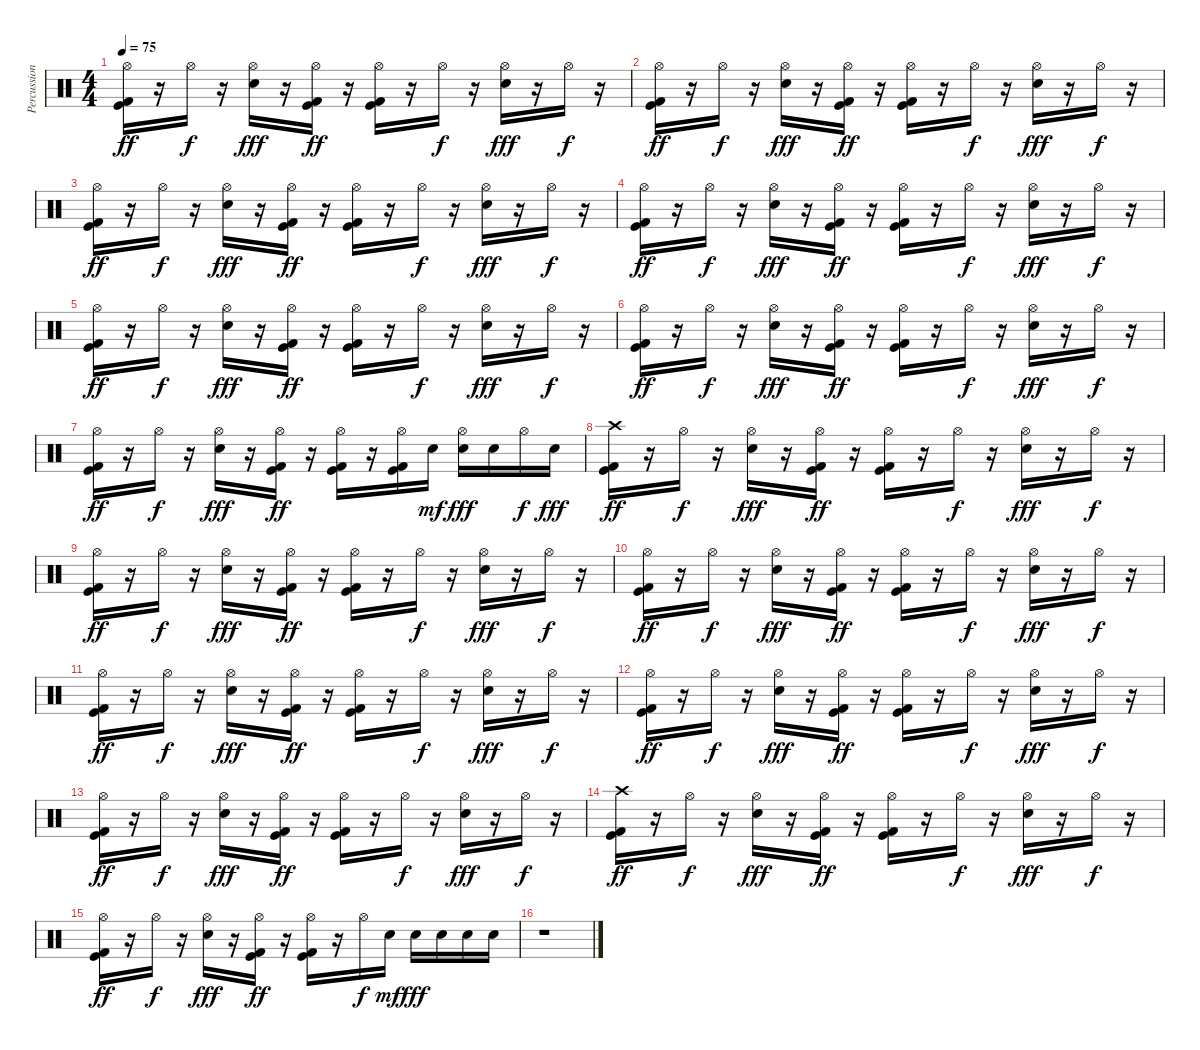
\track ("Percussion" "Percussion") {instrument percussion}
\staff {score}
\articulation defaults
\ts (4 4)
\tempo 75
\clef neutral
\ks c
("Kick (hit)" "Kick (hit) 2" "Hi-Hat (open)").16{dy ff} r.16 "Hi-Hat (open)".16{dy f} r.16 ("Electric Snare (hit)" "Hi-Hat (open)").16{dy fff} r.16 ("Kick (hit)" "Kick (hit) 2" "Hi-Hat (open)").16{dy ff} r.16 ("Kick (hit)" "Kick (hit) 2" "Hi-Hat (open)").16 r.16 "Hi-Hat (open)".16{dy f} r.16 ("Electric Snare (hit)" "Hi-Hat (open)").16{dy fff} r.16 "Hi-Hat (open)".16{dy f} r.16 |
("Kick (hit)" "Kick (hit) 2" "Hi-Hat (open)").16{dy ff} r.16 "Hi-Hat (open)".16{dy f} r.16 ("Electric Snare (hit)" "Hi-Hat (open)").16{dy fff} r.16 ("Kick (hit)" "Kick (hit) 2" "Hi-Hat (open)").16{dy ff} r.16 ("Kick (hit)" "Kick (hit) 2" "Hi-Hat (open)").16 r.16 "Hi-Hat (open)".16{dy f} r.16 ("Electric Snare (hit)" "Hi-Hat (open)").16{dy fff} r.16 "Hi-Hat (open)".16{dy f} r.16 |
("Kick (hit)" "Kick (hit) 2" "Hi-Hat (open)").16{dy ff} r.16 "Hi-Hat (open)".16{dy f} r.16 ("Electric Snare (hit)" "Hi-Hat (open)").16{dy fff} r.16 ("Kick (hit)" "Kick (hit) 2" "Hi-Hat (open)").16{dy ff} r.16 ("Kick (hit)" "Kick (hit) 2" "Hi-Hat (open)").16 r.16 "Hi-Hat (open)".16{dy f} r.16 ("Electric Snare (hit)" "Hi-Hat (open)").16{dy fff} r.16 "Hi-Hat (open)".16{dy f} r.16 |
("Kick (hit)" "Kick (hit) 2" "Hi-Hat (open)").16{dy ff} r.16 "Hi-Hat (open)".16{dy f} r.16 ("Electric Snare (hit)" "Hi-Hat (open)").16{dy fff} r.16 ("Kick (hit)" "Kick (hit) 2" "Hi-Hat (open)").16{dy ff} r.16 ("Kick (hit)" "Kick (hit) 2" "Hi-Hat (open)").16 r.16 "Hi-Hat (open)".16{dy f} r.16 ("Electric Snare (hit)" "Hi-Hat (open)").16{dy fff} r.16 "Hi-Hat (open)".16{dy f} r.16 |
("Kick (hit)" "Kick (hit) 2" "Hi-Hat (open)").16{dy ff} r.16 "Hi-Hat (open)".16{dy f} r.16 ("Electric Snare (hit)" "Hi-Hat (open)").16{dy fff} r.16 ("Kick (hit)" "Kick (hit) 2" "Hi-Hat (open)").16{dy ff} r.16 ("Kick (hit)" "Kick (hit) 2" "Hi-Hat (open)").16 r.16 "Hi-Hat (open)".16{dy f} r.16 ("Electric Snare (hit)" "Hi-Hat (open)").16{dy fff} r.16 "Hi-Hat (open)".16{dy f} r.16 |
("Kick (hit)" "Kick (hit) 2" "Hi-Hat (open)").16{dy ff} r.16 "Hi-Hat (open)".16{dy f} r.16 ("Electric Snare (hit)" "Hi-Hat (open)").16{dy fff} r.16 ("Kick (hit)" "Kick (hit) 2" "Hi-Hat (open)").16{dy ff} r.16 ("Kick (hit)" "Kick (hit) 2" "Hi-Hat (open)").16 r.16 "Hi-Hat (open)".16{dy f} r.16 ("Electric Snare (hit)" "Hi-Hat (open)").16{dy fff} r.16 "Hi-Hat (open)".16{dy f} r.16 |
("Kick (hit)" "Kick (hit) 2" "Hi-Hat (open)").16{dy ff} r.16 "Hi-Hat (open)".16{dy f} r.16 ("Electric Snare (hit)" "Hi-Hat (open)").16{dy fff} r.16 ("Kick (hit)" "Kick (hit) 2" "Hi-Hat (open)").16{dy ff} r.16 ("Kick (hit)" "Kick (hit) 2" "Hi-Hat (open)").16 r.16 ("Hi-Hat (open)" "Kick (hit)" "Kick (hit) 2").16 "Electric Snare (hit)".16{dy mf} ("Hi-Hat (open)" "Electric Snare (hit)").16{dy fff} "Electric Snare (hit)".16 "Hi-Hat (open)".16{dy f} "Electric Snare (hit)".16{dy fff} |
("Crash high (hit)" "Kick (hit)" "Kick (hit) 2").16{dy ff} r.16 "Hi-Hat (open)".16{dy f} r.16 ("Electric Snare (hit)" "Hi-Hat (open)").16{dy fff} r.16 ("Kick (hit)" "Kick (hit) 2" "Hi-Hat (open)").16{dy ff} r.16 ("Kick (hit)" "Kick (hit) 2" "Hi-Hat (open)").16 r.16 "Hi-Hat (open)".16{dy f} r.16 ("Electric Snare (hit)" "Hi-Hat (open)").16{dy fff} r.16 "Hi-Hat (open)".16{dy f} r.16 |
("Kick (hit)" "Kick (hit) 2" "Hi-Hat (open)").16{dy ff} r.16 "Hi-Hat (open)".16{dy f} r.16 ("Electric Snare (hit)" "Hi-Hat (open)").16{dy fff} r.16 ("Kick (hit)" "Kick (hit) 2" "Hi-Hat (open)").16{dy ff} r.16 ("Kick (hit)" "Kick (hit) 2" "Hi-Hat (open)").16 r.16 "Hi-Hat (open)".16{dy f} r.16 ("Electric Snare (hit)" "Hi-Hat (open)").16{dy fff} r.16 "Hi-Hat (open)".16{dy f} r.16 |
("Kick (hit)" "Kick (hit) 2" "Hi-Hat (open)").16{dy ff} r.16 "Hi-Hat (open)".16{dy f} r.16 ("Electric Snare (hit)" "Hi-Hat (open)").16{dy fff} r.16 ("Kick (hit)" "Kick (hit) 2" "Hi-Hat (open)").16{dy ff} r.16 ("Kick (hit)" "Kick (hit) 2" "Hi-Hat (open)").16 r.16 "Hi-Hat (open)".16{dy f} r.16 ("Electric Snare (hit)" "Hi-Hat (open)").16{dy fff} r.16 "Hi-Hat (open)".16{dy f} r.16 |
("Kick (hit)" "Kick (hit) 2" "Hi-Hat (open)").16{dy ff} r.16 "Hi-Hat (open)".16{dy f} r.16 ("Electric Snare (hit)" "Hi-Hat (open)").16{dy fff} r.16 ("Kick (hit)" "Kick (hit) 2" "Hi-Hat (open)").16{dy ff} r.16 ("Kick (hit)" "Kick (hit) 2" "Hi-Hat (open)").16 r.16 "Hi-Hat (open)".16{dy f} r.16 ("Electric Snare (hit)" "Hi-Hat (open)").16{dy fff} r.16 "Hi-Hat (open)".16{dy f} r.16 |
("Kick (hit)" "Kick (hit) 2" "Hi-Hat (open)").16{dy ff} r.16 "Hi-Hat (open)".16{dy f} r.16 ("Electric Snare (hit)" "Hi-Hat (open)").16{dy fff} r.16 ("Kick (hit)" "Kick (hit) 2" "Hi-Hat (open)").16{dy ff} r.16 ("Kick (hit)" "Kick (hit) 2" "Hi-Hat (open)").16 r.16 "Hi-Hat (open)".16{dy f} r.16 ("Electric Snare (hit)" "Hi-Hat (open)").16{dy fff} r.16 "Hi-Hat (open)".16{dy f} r.16 |
("Kick (hit)" "Kick (hit) 2" "Hi-Hat (open)").16{dy ff} r.16 "Hi-Hat (open)".16{dy f} r.16 ("Electric Snare (hit)" "Hi-Hat (open)").16{dy fff} r.16 ("Kick (hit)" "Kick (hit) 2" "Hi-Hat (open)").16{dy ff} r.16 ("Kick (hit)" "Kick (hit) 2" "Hi-Hat (open)").16 r.16 "Hi-Hat (open)".16{dy f} r.16 ("Electric Snare (hit)" "Hi-Hat (open)").16{dy fff} r.16 "Hi-Hat (open)".16{dy f} r.16 |
("Kick (hit)" "Kick (hit) 2" "Crash high (hit)").16{dy ff} r.16 "Hi-Hat (open)".16{dy f} r.16 ("Electric Snare (hit)" "Hi-Hat (open)").16{dy fff} r.16 ("Kick (hit)" "Kick (hit) 2" "Hi-Hat (open)").16{dy ff} r.16 ("Kick (hit)" "Kick (hit) 2" "Hi-Hat (open)").16 r.16 "Hi-Hat (open)".16{dy f} r.16 ("Electric Snare (hit)" "Hi-Hat (open)").16{dy fff} r.16 "Hi-Hat (open)".16{dy f} r.16 |
("Kick (hit)" "Kick (hit) 2" "Hi-Hat (open)").16{dy ff} r.16 "Hi-Hat (open)".16{dy f} r.16 ("Electric Snare (hit)" "Hi-Hat (open)").16{dy fff} r.16 ("Kick (hit)" "Kick (hit) 2" "Hi-Hat (open)").16{dy ff} r.16 ("Kick (hit)" "Kick (hit) 2" "Hi-Hat (open)").16 r.16 "Hi-Hat (open)".16{dy f} "Electric Snare (hit)".16{dy mf} "Electric Snare (hit)".16{dy fff} "Electric Snare (hit)".16 "Electric Snare (hit)".16 "Electric Snare (hit)".16 |
r.1
